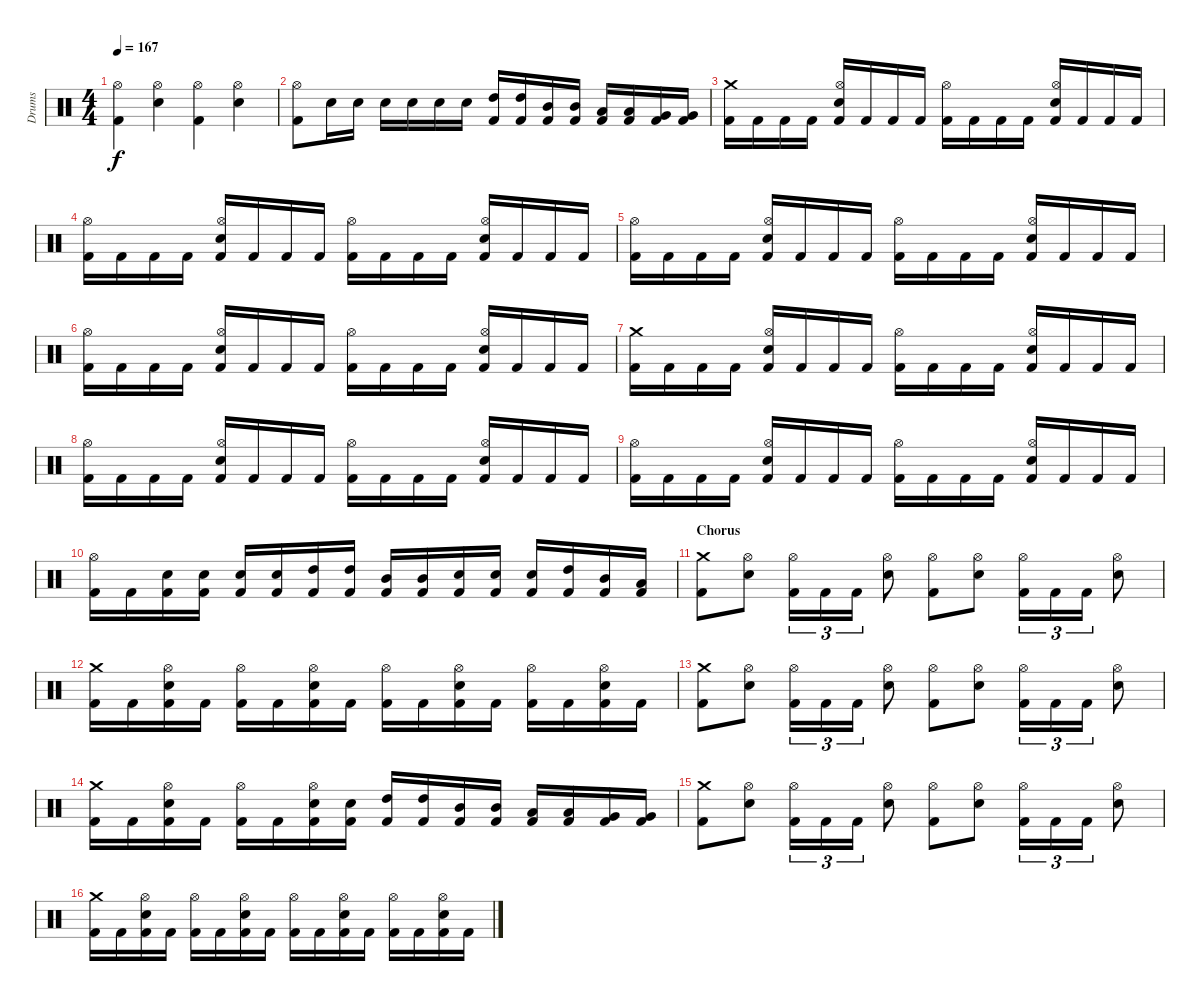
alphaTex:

\track ("Drums" "Drums") {instrument percussion}
\staff {score}
\articulation defaults
\ts (4 4)
\tempo 167
\clef neutral
\ks c
("Kick (hit) 2" "Hi-Hat (open)").4{dy f} ("Electric Snare (hit)" "Hi-Hat (open)").4 ("Kick (hit) 2" "Hi-Hat (open)").4 ("Electric Snare (hit)" "Hi-Hat (open)").4 |
("Kick (hit) 2" "Hi-Hat (open)").8 "Electric Snare (hit)".16 "Electric Snare (hit)".16 "Electric Snare (hit)".16 "Electric Snare (hit)".16 "Electric Snare (hit)".16 "Electric Snare (hit)".16 ("Kick (hit) 2" "High Tom (hit)").16 ("Kick (hit) 2" "High Tom (hit)").16 ("Kick (hit) 2" "Mid Tom (hit)").16 ("Kick (hit) 2" "Mid Tom (hit)").16 ("Kick (hit) 2" "Low Tom (hit)").16 ("Kick (hit) 2" "Low Tom (hit)").16 ("Kick (hit) 2" "Very Low Tom (hit)").16 ("Kick (hit) 2" "Very Low Tom (hit)").16 |
("Kick (hit) 2" "Crash medium (hit)").16 "Kick (hit) 2".16 "Kick (hit) 2".16 "Kick (hit) 2".16 ("Kick (hit) 2" "Electric Snare (hit)" "Hi-Hat (open)").16 "Kick (hit) 2".16 "Kick (hit) 2".16 "Kick (hit) 2".16 ("Kick (hit) 2" "Hi-Hat (open)").16 "Kick (hit) 2".16 "Kick (hit) 2".16 "Kick (hit) 2".16 ("Kick (hit) 2" "Electric Snare (hit)" "Hi-Hat (open)").16 "Kick (hit) 2".16 "Kick (hit) 2".16 "Kick (hit) 2".16 |
("Kick (hit) 2" "Hi-Hat (open)").16 "Kick (hit) 2".16 "Kick (hit) 2".16 "Kick (hit) 2".16 ("Kick (hit) 2" "Electric Snare (hit)" "Hi-Hat (open)").16 "Kick (hit) 2".16 "Kick (hit) 2".16 "Kick (hit) 2".16 ("Kick (hit) 2" "Hi-Hat (open)").16 "Kick (hit) 2".16 "Kick (hit) 2".16 "Kick (hit) 2".16 ("Kick (hit) 2" "Electric Snare (hit)" "Hi-Hat (open)").16 "Kick (hit) 2".16 "Kick (hit) 2".16 "Kick (hit) 2".16 |
("Kick (hit) 2" "Hi-Hat (open)").16 "Kick (hit) 2".16 "Kick (hit) 2".16 "Kick (hit) 2".16 ("Kick (hit) 2" "Electric Snare (hit)" "Hi-Hat (open)").16 "Kick (hit) 2".16 "Kick (hit) 2".16 "Kick (hit) 2".16 ("Kick (hit) 2" "Hi-Hat (open)").16 "Kick (hit) 2".16 "Kick (hit) 2".16 "Kick (hit) 2".16 ("Kick (hit) 2" "Electric Snare (hit)" "Hi-Hat (open)").16 "Kick (hit) 2".16 "Kick (hit) 2".16 "Kick (hit) 2".16 |
("Kick (hit) 2" "Hi-Hat (open)").16 "Kick (hit) 2".16 "Kick (hit) 2".16 "Kick (hit) 2".16 ("Kick (hit) 2" "Electric Snare (hit)" "Hi-Hat (open)").16 "Kick (hit) 2".16 "Kick (hit) 2".16 "Kick (hit) 2".16 ("Kick (hit) 2" "Hi-Hat (open)").16 "Kick (hit) 2".16 "Kick (hit) 2".16 "Kick (hit) 2".16 ("Kick (hit) 2" "Electric Snare (hit)" "Hi-Hat (open)").16 "Kick (hit) 2".16 "Kick (hit) 2".16 "Kick (hit) 2".16 |
("Kick (hit) 2" "Crash medium (hit)").16 "Kick (hit) 2".16 "Kick (hit) 2".16 "Kick (hit) 2".16 ("Kick (hit) 2" "Electric Snare (hit)" "Hi-Hat (open)").16 "Kick (hit) 2".16 "Kick (hit) 2".16 "Kick (hit) 2".16 ("Kick (hit) 2" "Hi-Hat (open)").16 "Kick (hit) 2".16 "Kick (hit) 2".16 "Kick (hit) 2".16 ("Kick (hit) 2" "Electric Snare (hit)" "Hi-Hat (open)").16 "Kick (hit) 2".16 "Kick (hit) 2".16 "Kick (hit) 2".16 |
("Kick (hit) 2" "Hi-Hat (open)").16 "Kick (hit) 2".16 "Kick (hit) 2".16 "Kick (hit) 2".16 ("Kick (hit) 2" "Electric Snare (hit)" "Hi-Hat (open)").16 "Kick (hit) 2".16 "Kick (hit) 2".16 "Kick (hit) 2".16 ("Kick (hit) 2" "Hi-Hat (open)").16 "Kick (hit) 2".16 "Kick (hit) 2".16 "Kick (hit) 2".16 ("Kick (hit) 2" "Electric Snare (hit)" "Hi-Hat (open)").16 "Kick (hit) 2".16 "Kick (hit) 2".16 "Kick (hit) 2".16 |
("Kick (hit) 2" "Hi-Hat (open)").16 "Kick (hit) 2".16 "Kick (hit) 2".16 "Kick (hit) 2".16 ("Kick (hit) 2" "Electric Snare (hit)" "Hi-Hat (open)").16 "Kick (hit) 2".16 "Kick (hit) 2".16 "Kick (hit) 2".16 ("Kick (hit) 2" "Hi-Hat (open)").16 "Kick (hit) 2".16 "Kick (hit) 2".16 "Kick (hit) 2".16 ("Kick (hit) 2" "Electric Snare (hit)" "Hi-Hat (open)").16 "Kick (hit) 2".16 "Kick (hit) 2".16 "Kick (hit) 2".16 |
("Kick (hit) 2" "Hi-Hat (open)").16 "Kick (hit) 2".16 ("Kick (hit) 2" "Electric Snare (hit)").16 ("Kick (hit) 2" "Electric Snare (hit)").16 ("Kick (hit) 2" "Electric Snare (hit)").16 ("Kick (hit) 2" "Electric Snare (hit)").16 ("Kick (hit) 2" "High Tom (hit)").16 ("Kick (hit) 2" "High Tom (hit)").16 ("Kick (hit) 2" "Mid Tom (hit)").16 ("Kick (hit) 2" "Mid Tom (hit)").16 ("Kick (hit) 2" "Electric Snare (hit)").16 ("Kick (hit) 2" "Electric Snare (hit)").16 ("Kick (hit) 2" "Electric Snare (hit)").16 ("Kick (hit) 2" "High Tom (hit)").16 ("Kick (hit) 2" "Mid Tom (hit)").16 ("Kick (hit) 2" "Low Tom (hit)").16 |
\section ("" "Chorus")
("Kick (hit) 2" "Crash medium (hit)").8 ("Electric Snare (hit)" "Hi-Hat (open)").8 ("Kick (hit) 2" "Hi-Hat (open)").16{tu (3 2)} "Kick (hit) 2".16{tu (3 2)} "Kick (hit) 2".16{tu (3 2)} ("Electric Snare (hit)" "Hi-Hat (open)").8 ("Kick (hit) 2" "Hi-Hat (open)").8 ("Electric Snare (hit)" "Hi-Hat (open)").8 ("Kick (hit) 2" "Hi-Hat (open)").16{tu (3 2)} "Kick (hit) 2".16{tu (3 2)} "Kick (hit) 2".16{tu (3 2)} ("Electric Snare (hit)" "Hi-Hat (open)").8 |
("Kick (hit) 2" "Crash medium (hit)").16 "Kick (hit) 2".16 ("Kick (hit) 2" "Electric Snare (hit)" "Hi-Hat (open)").16 "Kick (hit) 2".16 ("Kick (hit) 2" "Hi-Hat (open)").16 "Kick (hit) 2".16 ("Kick (hit) 2" "Electric Snare (hit)" "Hi-Hat (open)").16 "Kick (hit) 2".16 ("Kick (hit) 2" "Hi-Hat (open)").16 "Kick (hit) 2".16 ("Kick (hit) 2" "Electric Snare (hit)" "Hi-Hat (open)").16 "Kick (hit) 2".16 ("Kick (hit) 2" "Hi-Hat (open)").16 "Kick (hit) 2".16 ("Kick (hit) 2" "Electric Snare (hit)" "Hi-Hat (open)").16 "Kick (hit) 2".16 |
("Kick (hit) 2" "Crash medium (hit)").8 ("Electric Snare (hit)" "Hi-Hat (open)").8 ("Kick (hit) 2" "Hi-Hat (open)").16{tu (3 2)} "Kick (hit) 2".16{tu (3 2)} "Kick (hit) 2".16{tu (3 2)} ("Electric Snare (hit)" "Hi-Hat (open)").8 ("Kick (hit) 2" "Hi-Hat (open)").8 ("Electric Snare (hit)" "Hi-Hat (open)").8 ("Kick (hit) 2" "Hi-Hat (open)").16{tu (3 2)} "Kick (hit) 2".16{tu (3 2)} "Kick (hit) 2".16{tu (3 2)} ("Electric Snare (hit)" "Hi-Hat (open)").8 |
("Kick (hit) 2" "Crash medium (hit)").16 "Kick (hit) 2".16 ("Kick (hit) 2" "Electric Snare (hit)" "Hi-Hat (open)").16 "Kick (hit) 2".16 ("Kick (hit) 2" "Hi-Hat (open)").16 "Kick (hit) 2".16 ("Kick (hit) 2" "Electric Snare (hit)" "Hi-Hat (open)").16 ("Kick (hit) 2" "Electric Snare (hit)").16 ("Kick (hit) 2" "High Tom (hit)").16 ("Kick (hit) 2" "High Tom (hit)").16 ("Kick (hit) 2" "Mid Tom (hit)").16 ("Kick (hit) 2" "Mid Tom (hit)").16 ("Kick (hit) 2" "Low Tom (hit)").16 ("Kick (hit) 2" "Low Tom (hit)").16 ("Kick (hit) 2" "Very Low Tom (hit)").16 ("Kick (hit) 2" "Very Low Tom (hit)").16 |
("Kick (hit) 2" "Crash medium (hit)").8 ("Electric Snare (hit)" "Hi-Hat (open)").8 ("Kick (hit) 2" "Hi-Hat (open)").16{tu (3 2)} "Kick (hit) 2".16{tu (3 2)} "Kick (hit) 2".16{tu (3 2)} ("Electric Snare (hit)" "Hi-Hat (open)").8 ("Kick (hit) 2" "Hi-Hat (open)").8 ("Electric Snare (hit)" "Hi-Hat (open)").8 ("Kick (hit) 2" "Hi-Hat (open)").16{tu (3 2)} "Kick (hit) 2".16{tu (3 2)} "Kick (hit) 2".16{tu (3 2)} ("Electric Snare (hit)" "Hi-Hat (open)").8 |
("Kick (hit) 2" "Crash medium (hit)").16 "Kick (hit) 2".16 ("Kick (hit) 2" "Electric Snare (hit)" "Hi-Hat (open)").16 "Kick (hit) 2".16 ("Kick (hit) 2" "Hi-Hat (open)").16 "Kick (hit) 2".16 ("Kick (hit) 2" "Electric Snare (hit)" "Hi-Hat (open)").16 "Kick (hit) 2".16 ("Kick (hit) 2" "Hi-Hat (open)").16 "Kick (hit) 2".16 ("Kick (hit) 2" "Electric Snare (hit)" "Hi-Hat (open)").16 "Kick (hit) 2".16 ("Kick (hit) 2" "Hi-Hat (open)").16 "Kick (hit) 2".16 ("Kick (hit) 2" "Electric Snare (hit)" "Hi-Hat (open)").16 "Kick (hit) 2".16
